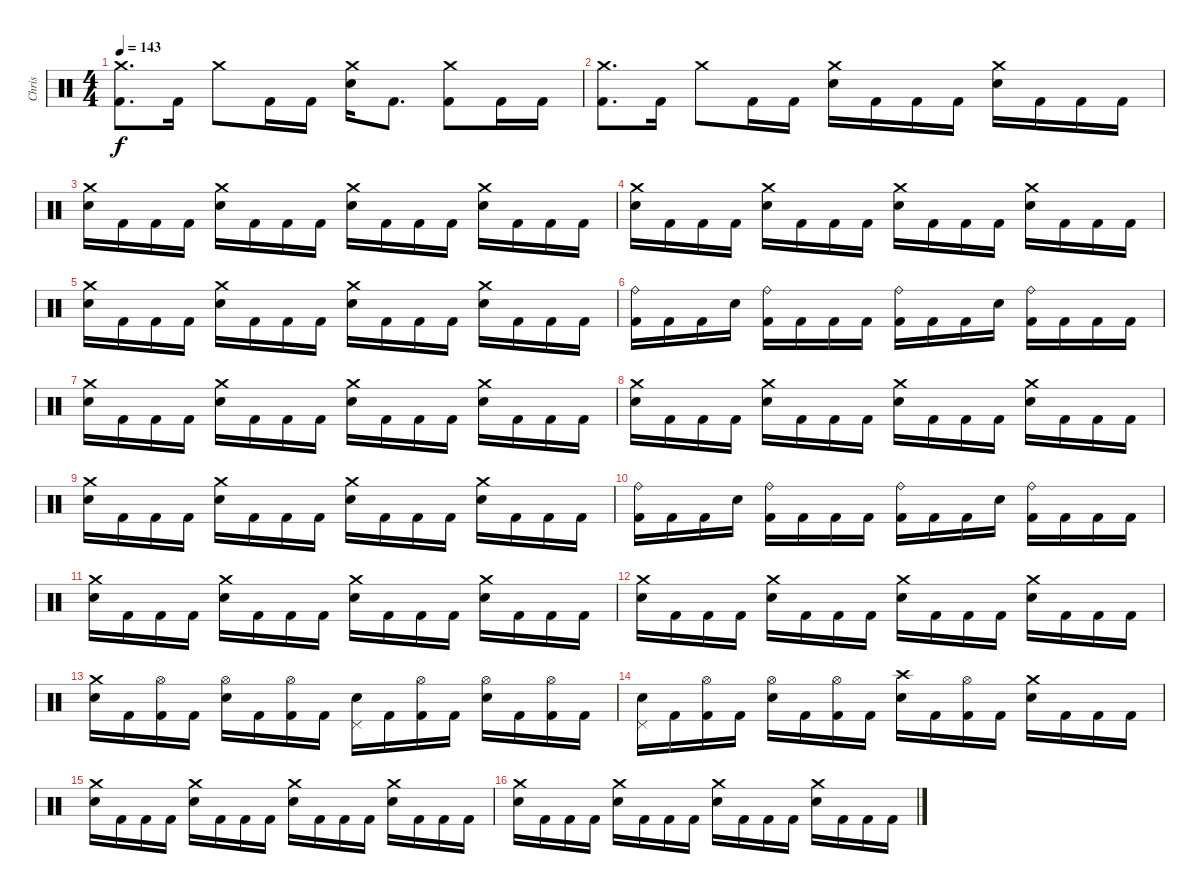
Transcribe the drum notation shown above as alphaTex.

\track ("Chris" "Chris") {instrument percussion}
\staff {score}
\articulation defaults
\ts (4 4)
\tempo 143
\clef neutral
\ks c
("Crash medium (hit)" "Kick (hit) 2").8{d dy f} "Kick (hit) 2".16 "Crash medium (hit)".8 "Kick (hit) 2".16 "Kick (hit) 2".16 ("Crash medium (hit)" "Electric Snare (hit)").16 "Kick (hit) 2".8{d} ("Crash medium (hit)" "Kick (hit) 2").8 "Kick (hit) 2".16 "Kick (hit) 2".16 |
("Crash medium (hit)" "Kick (hit) 2").8{d} "Kick (hit) 2".16 "Crash medium (hit)".8 "Kick (hit) 2".16 "Kick (hit) 2".16 ("Crash medium (hit)" "Electric Snare (hit)").16 "Kick (hit) 2".16 "Kick (hit) 2".16 "Kick (hit) 2".16 ("Crash medium (hit)" "Electric Snare (hit)").16 "Kick (hit) 2".16 "Kick (hit) 2".16 "Kick (hit) 2".16 |
("Crash medium (hit)" "Electric Snare (hit)").16 "Kick (hit) 2".16 "Kick (hit) 2".16 "Kick (hit) 2".16 ("Crash medium (hit)" "Electric Snare (hit)").16 "Kick (hit) 2".16 "Kick (hit) 2".16 "Kick (hit) 2".16 ("Crash medium (hit)" "Electric Snare (hit)").16 "Kick (hit) 2".16 "Kick (hit) 2".16 "Kick (hit) 2".16 ("Crash medium (hit)" "Electric Snare (hit)").16 "Kick (hit) 2".16 "Kick (hit) 2".16 "Kick (hit) 2".16 |
("Crash medium (hit)" "Electric Snare (hit)").16 "Kick (hit) 2".16 "Kick (hit) 2".16 "Kick (hit) 2".16 ("Crash medium (hit)" "Electric Snare (hit)").16 "Kick (hit) 2".16 "Kick (hit) 2".16 "Kick (hit) 2".16 ("Crash medium (hit)" "Electric Snare (hit)").16 "Kick (hit) 2".16 "Kick (hit) 2".16 "Kick (hit) 2".16 ("Crash medium (hit)" "Electric Snare (hit)").16 "Kick (hit) 2".16 "Kick (hit) 2".16 "Kick (hit) 2".16 |
("Crash medium (hit)" "Electric Snare (hit)").16 "Kick (hit) 2".16 "Kick (hit) 2".16 "Kick (hit) 2".16 ("Crash medium (hit)" "Electric Snare (hit)").16 "Kick (hit) 2".16 "Kick (hit) 2".16 "Kick (hit) 2".16 ("Crash medium (hit)" "Electric Snare (hit)").16 "Kick (hit) 2".16 "Kick (hit) 2".16 "Kick (hit) 2".16 ("Crash medium (hit)" "Electric Snare (hit)").16 "Kick (hit) 2".16 "Kick (hit) 2".16 "Kick (hit) 2".16 |
("Ride (bell)" "Kick (hit) 2").16 "Kick (hit) 2".16 "Kick (hit) 2".16 "Electric Snare (hit)".16 ("Ride (bell)" "Kick (hit) 2").16 "Kick (hit) 2".16 "Kick (hit) 2".16 "Kick (hit) 2".16 ("Ride (bell)" "Kick (hit) 2").16 "Kick (hit) 2".16 "Kick (hit) 2".16 "Electric Snare (hit)".16 ("Ride (bell)" "Kick (hit) 2").16 "Kick (hit) 2".16 "Kick (hit) 2".16 "Kick (hit) 2".16 |
("Crash medium (hit)" "Electric Snare (hit)").16 "Kick (hit) 2".16 "Kick (hit) 2".16 "Kick (hit) 2".16 ("Crash medium (hit)" "Electric Snare (hit)").16 "Kick (hit) 2".16 "Kick (hit) 2".16 "Kick (hit) 2".16 ("Crash medium (hit)" "Electric Snare (hit)").16 "Kick (hit) 2".16 "Kick (hit) 2".16 "Kick (hit) 2".16 ("Crash medium (hit)" "Electric Snare (hit)").16 "Kick (hit) 2".16 "Kick (hit) 2".16 "Kick (hit) 2".16 |
("Crash medium (hit)" "Electric Snare (hit)").16 "Kick (hit) 2".16 "Kick (hit) 2".16 "Kick (hit) 2".16 ("Crash medium (hit)" "Electric Snare (hit)").16 "Kick (hit) 2".16 "Kick (hit) 2".16 "Kick (hit) 2".16 ("Crash medium (hit)" "Electric Snare (hit)").16 "Kick (hit) 2".16 "Kick (hit) 2".16 "Kick (hit) 2".16 ("Crash medium (hit)" "Electric Snare (hit)").16 "Kick (hit) 2".16 "Kick (hit) 2".16 "Kick (hit) 2".16 |
("Crash medium (hit)" "Electric Snare (hit)").16 "Kick (hit) 2".16 "Kick (hit) 2".16 "Kick (hit) 2".16 ("Crash medium (hit)" "Electric Snare (hit)").16 "Kick (hit) 2".16 "Kick (hit) 2".16 "Kick (hit) 2".16 ("Crash medium (hit)" "Electric Snare (hit)").16 "Kick (hit) 2".16 "Kick (hit) 2".16 "Kick (hit) 2".16 ("Crash medium (hit)" "Electric Snare (hit)").16 "Kick (hit) 2".16 "Kick (hit) 2".16 "Kick (hit) 2".16 |
("Ride (bell)" "Kick (hit) 2").16 "Kick (hit) 2".16 "Kick (hit) 2".16 "Electric Snare (hit)".16 ("Ride (bell)" "Kick (hit) 2").16 "Kick (hit) 2".16 "Kick (hit) 2".16 "Kick (hit) 2".16 ("Ride (bell)" "Kick (hit) 2").16 "Kick (hit) 2".16 "Kick (hit) 2".16 "Electric Snare (hit)".16 ("Ride (bell)" "Kick (hit) 2").16 "Kick (hit) 2".16 "Kick (hit) 2".16 "Kick (hit) 2".16 |
("Crash medium (hit)" "Electric Snare (hit)").16 "Kick (hit) 2".16 "Kick (hit) 2".16 "Kick (hit) 2".16 ("Crash medium (hit)" "Electric Snare (hit)").16 "Kick (hit) 2".16 "Kick (hit) 2".16 "Kick (hit) 2".16 ("Crash medium (hit)" "Electric Snare (hit)").16 "Kick (hit) 2".16 "Kick (hit) 2".16 "Kick (hit) 2".16 ("Crash medium (hit)" "Electric Snare (hit)").16 "Kick (hit) 2".16 "Kick (hit) 2".16 "Kick (hit) 2".16 |
("Crash medium (hit)" "Electric Snare (hit)").16 "Kick (hit) 2".16 "Kick (hit) 2".16 "Kick (hit) 2".16 ("Crash medium (hit)" "Electric Snare (hit)").16 "Kick (hit) 2".16 "Kick (hit) 2".16 "Kick (hit) 2".16 ("Crash medium (hit)" "Electric Snare (hit)").16 "Kick (hit) 2".16 "Kick (hit) 2".16 "Kick (hit) 2".16 ("Crash medium (hit)" "Electric Snare (hit)").16 "Kick (hit) 2".16 "Kick (hit) 2".16 "Kick (hit) 2".16 |
("Crash medium (hit)" "Electric Snare (hit)").16 "Kick (hit) 2".16 ("Hi-Hat (open)" "Kick (hit) 2").16 "Kick (hit) 2".16 ("Hi-Hat (open)" "Electric Snare (hit)").16 "Kick (hit) 2".16 ("Hi-Hat (open)" "Kick (hit) 2").16 "Kick (hit) 2".16 ("Pedal Hi-Hat (hit)" "Electric Snare (hit)").16 "Kick (hit) 2".16 ("Hi-Hat (open)" "Kick (hit) 2").16 "Kick (hit) 2".16 ("Hi-Hat (open)" "Electric Snare (hit)").16 "Kick (hit) 2".16 ("Hi-Hat (open)" "Kick (hit) 2").16 "Kick (hit) 2".16 |
("Pedal Hi-Hat (hit)" "Electric Snare (hit)").16 "Kick (hit) 2".16 ("Hi-Hat (open)" "Kick (hit) 2").16 "Kick (hit) 2".16 ("Hi-Hat (open)" "Electric Snare (hit)").16 "Kick (hit) 2".16 ("Hi-Hat (open)" "Kick (hit) 2").16 "Kick (hit) 2".16 ("Crash high (hit)" "Electric Snare (hit)").16 "Kick (hit) 2".16 ("Hi-Hat (open)" "Kick (hit) 2").16 "Kick (hit) 2".16 ("Crash medium (hit)" "Electric Snare (hit)").16 "Kick (hit) 2".16 "Kick (hit) 2".16 "Kick (hit) 2".16 |
("Crash medium (hit)" "Electric Snare (hit)").16 "Kick (hit) 2".16 "Kick (hit) 2".16 "Kick (hit) 2".16 ("Crash medium (hit)" "Electric Snare (hit)").16 "Kick (hit) 2".16 "Kick (hit) 2".16 "Kick (hit) 2".16 ("Crash medium (hit)" "Electric Snare (hit)").16 "Kick (hit) 2".16 "Kick (hit) 2".16 "Kick (hit) 2".16 ("Crash medium (hit)" "Electric Snare (hit)").16 "Kick (hit) 2".16 "Kick (hit) 2".16 "Kick (hit) 2".16 |
("Crash medium (hit)" "Electric Snare (hit)").16 "Kick (hit) 2".16 "Kick (hit) 2".16 "Kick (hit) 2".16 ("Crash medium (hit)" "Electric Snare (hit)").16 "Kick (hit) 2".16 "Kick (hit) 2".16 "Kick (hit) 2".16 ("Crash medium (hit)" "Electric Snare (hit)").16 "Kick (hit) 2".16 "Kick (hit) 2".16 "Kick (hit) 2".16 ("Crash medium (hit)" "Electric Snare (hit)").16 "Kick (hit) 2".16 "Kick (hit) 2".16 "Kick (hit) 2".16
